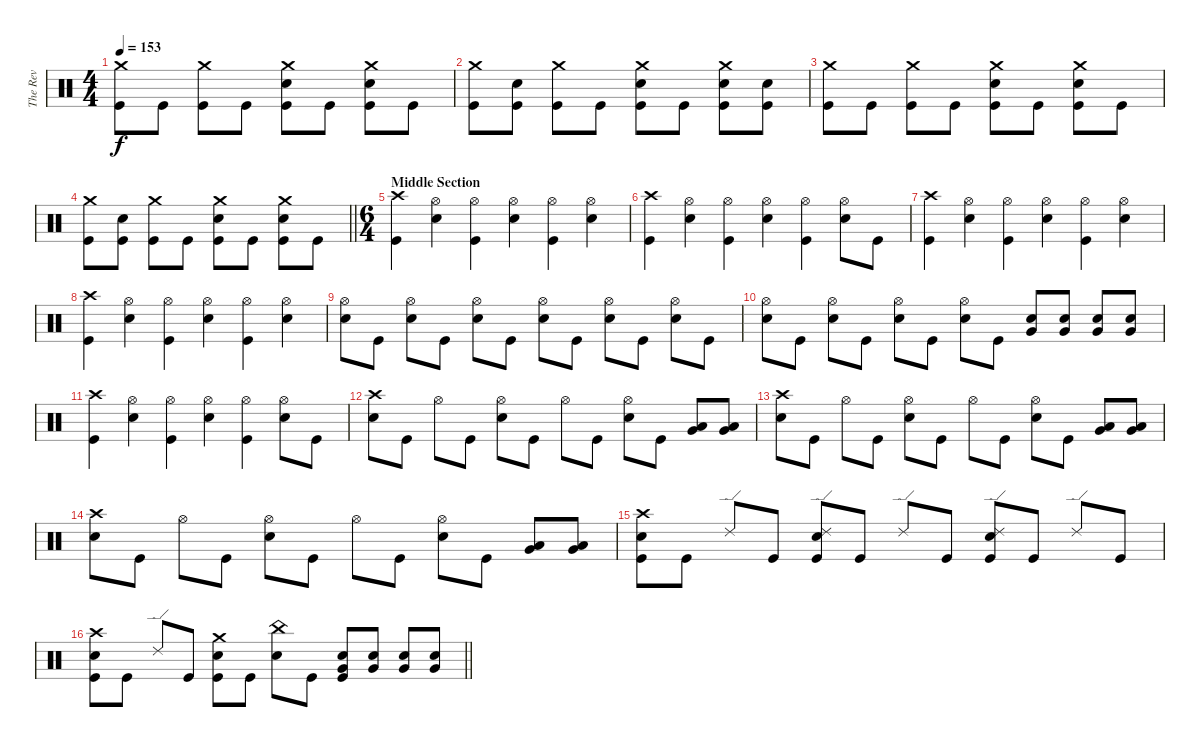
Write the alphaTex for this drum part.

\track ("The Rev" "The Rev") {instrument percussion}
\staff {score}
\articulation defaults
\ts (4 4)
\tempo 153
\clef neutral
\ks c
("Crash medium (hit)" "Kick (hit)").8{dy f} "Kick (hit)".8 ("Crash medium (hit)" "Kick (hit)").8 "Kick (hit)".8 ("Crash medium (hit)" "Electric Snare (hit)" "Kick (hit)").8 "Kick (hit)".8 ("Crash medium (hit)" "Electric Snare (hit)" "Kick (hit)").8 "Kick (hit)".8 |
("Crash medium (hit)" "Kick (hit)").8 ("Electric Snare (hit)" "Kick (hit)").8 ("Crash medium (hit)" "Kick (hit)").8 "Kick (hit)".8 ("Crash medium (hit)" "Electric Snare (hit)" "Kick (hit)").8 "Kick (hit)".8 ("Crash medium (hit)" "Electric Snare (hit)" "Kick (hit)").8 ("Electric Snare (hit)" "Kick (hit)").8 |
("Crash medium (hit)" "Kick (hit)").8 "Kick (hit)".8 ("Crash medium (hit)" "Kick (hit)").8 "Kick (hit)".8 ("Crash medium (hit)" "Electric Snare (hit)" "Kick (hit)").8 "Kick (hit)".8 ("Crash medium (hit)" "Electric Snare (hit)" "Kick (hit)").8 "Kick (hit)".8 |
\barLineRight lightlight
("Crash medium (hit)" "Kick (hit)").8 ("Electric Snare (hit)" "Kick (hit)").8 ("Crash medium (hit)" "Kick (hit)").8 "Kick (hit)".8 ("Crash medium (hit)" "Electric Snare (hit)" "Kick (hit)").8 "Kick (hit)".8 ("Crash medium (hit)" "Electric Snare (hit)" "Kick (hit)").8 "Kick (hit)".8 |
\ts (6 4)
\section ("" "Middle Section")
("Crash high (hit)" "Kick (hit)").4 ("Hi-Hat (open)" "Electric Snare (hit)").4 ("Hi-Hat (open)" "Kick (hit)").4 ("Hi-Hat (open)" "Electric Snare (hit)").4 ("Hi-Hat (open)" "Kick (hit)").4 ("Hi-Hat (open)" "Electric Snare (hit)").4 |
("Crash high (hit)" "Kick (hit)").4 ("Hi-Hat (open)" "Electric Snare (hit)").4 ("Hi-Hat (open)" "Kick (hit)").4 ("Hi-Hat (open)" "Electric Snare (hit)").4 ("Hi-Hat (open)" "Kick (hit)").4 ("Hi-Hat (open)" "Electric Snare (hit)").8 "Kick (hit)".8 |
("Crash high (hit)" "Kick (hit)").4 ("Hi-Hat (open)" "Electric Snare (hit)").4 ("Hi-Hat (open)" "Kick (hit)").4 ("Hi-Hat (open)" "Electric Snare (hit)").4 ("Hi-Hat (open)" "Kick (hit)").4 ("Hi-Hat (open)" "Electric Snare (hit)").4 |
("Crash high (hit)" "Kick (hit)").4 ("Hi-Hat (open)" "Electric Snare (hit)").4 ("Hi-Hat (open)" "Kick (hit)").4 ("Hi-Hat (open)" "Electric Snare (hit)").4 ("Hi-Hat (open)" "Kick (hit)").4 ("Hi-Hat (open)" "Electric Snare (hit)").4 |
("Hi-Hat (open)" "Electric Snare (hit)").8 "Kick (hit)".8 ("Hi-Hat (open)" "Electric Snare (hit)").8 "Kick (hit)".8 ("Hi-Hat (open)" "Electric Snare (hit)").8 "Kick (hit)".8 ("Hi-Hat (open)" "Electric Snare (hit)").8 "Kick (hit)".8 ("Hi-Hat (open)" "Electric Snare (hit)").8 "Kick (hit)".8 ("Hi-Hat (open)" "Electric Snare (hit)").8 "Kick (hit)".8 |
("Hi-Hat (open)" "Electric Snare (hit)").8 "Kick (hit)".8 ("Hi-Hat (open)" "Electric Snare (hit)").8 "Kick (hit)".8 ("Hi-Hat (open)" "Electric Snare (hit)").8 "Kick (hit)".8 ("Hi-Hat (open)" "Electric Snare (hit)").8 "Kick (hit)".8 ("Electric Snare (hit)" "Very Low Tom (hit)").8 ("Electric Snare (hit)" "Very Low Tom (hit)").8 ("Electric Snare (hit)" "Very Low Tom (hit)").8 ("Electric Snare (hit)" "Very Low Tom (hit)").8 |
("Crash high (hit)" "Kick (hit)").4 ("Hi-Hat (open)" "Electric Snare (hit)").4 ("Hi-Hat (open)" "Kick (hit)").4 ("Hi-Hat (open)" "Electric Snare (hit)").4 ("Hi-Hat (open)" "Kick (hit)").4 ("Hi-Hat (open)" "Electric Snare (hit)").8 "Kick (hit)".8 |
("Crash high (hit)" "Electric Snare (hit)").8 "Kick (hit)".8 "Hi-Hat (open)".8 "Kick (hit)".8 ("Hi-Hat (open)" "Electric Snare (hit)").8 "Kick (hit)".8 "Hi-Hat (open)".8 "Kick (hit)".8 ("Hi-Hat (open)" "Electric Snare (hit)").8 "Kick (hit)".8 ("Low Tom (hit)" "Very Low Tom (hit)").8 ("Low Tom (hit)" "Very Low Tom (hit)").8 |
("Crash high (hit)" "Electric Snare (hit)").8 "Kick (hit)".8 "Hi-Hat (open)".8 "Kick (hit)".8 ("Hi-Hat (open)" "Electric Snare (hit)").8 "Kick (hit)".8 "Hi-Hat (open)".8 "Kick (hit)".8 ("Hi-Hat (open)" "Electric Snare (hit)").8 "Kick (hit)".8 ("Low Tom (hit)" "Very Low Tom (hit)").8 ("Low Tom (hit)" "Very Low Tom (hit)").8 |
("Crash high (hit)" "Electric Snare (hit)").8 "Kick (hit)".8 "Hi-Hat (open)".8 "Kick (hit)".8 ("Hi-Hat (open)" "Electric Snare (hit)").8 "Kick (hit)".8 "Hi-Hat (open)".8 "Kick (hit)".8 ("Hi-Hat (open)" "Electric Snare (hit)").8 "Kick (hit)".8 ("Low Tom (hit)" "Very Low Tom (hit)").8 ("Low Tom (hit)" "Very Low Tom (hit)").8 |
("Crash high (hit)" "Electric Snare (hit)" "Kick (hit)").8 "Kick (hit)".8 "Ride (edge) 2".8 "Kick (hit)".8 ("Ride (edge) 2" "Electric Snare (hit)" "Kick (hit)").8 "Kick (hit)".8 "Ride (edge) 2".8 "Kick (hit)".8 ("Ride (edge) 2" "Electric Snare (hit)" "Kick (hit)").8 "Kick (hit)".8 "Ride (edge) 2".8 "Kick (hit)".8 |
\barLineRight lightlight
("Crash high (hit)" "Electric Snare (hit)" "Kick (hit)").8 "Kick (hit)".8 "Ride (edge) 2".8 "Kick (hit)".8 ("Crash medium (hit)" "Electric Snare (hit)" "Kick (hit)").8 "Kick (hit)".8 ("China (hit)" "Electric Snare (hit)").8 "Kick (hit)".8 ("Electric Snare (hit)" "Very Low Tom (hit)" "Kick (hit)").8 ("Electric Snare (hit)" "Very Low Tom (hit)").8 ("Electric Snare (hit)" "Very Low Tom (hit)").8 ("Electric Snare (hit)" "Very Low Tom (hit)").8
